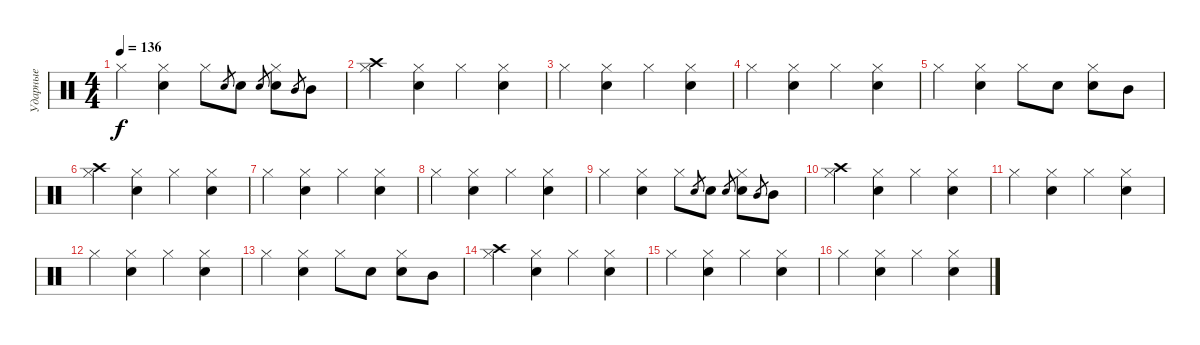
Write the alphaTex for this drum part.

\track ("Ударные" "Ударные") {instrument percussion}
\staff {score}
\articulation defaults
\ts (4 4)
\tempo 136
\clef neutral
\ks c "Hi-Hat (closed)".4{dy f}
("Hi-Hat (closed)" "Snare (hit) 2").4 "Hi-Hat (closed)".8 "Snare (hit) 2".8{gr} "Snare (hit) 2".8 "Snare (hit) 2".8{gr} ("Hi-Hat (closed)" "Snare (hit) 2").8 "Mid Tom (hit)".8{gr} "Mid Tom (hit)".8 |
("Hi-Hat (closed)" "Crash high (hit)").4 ("Hi-Hat (closed)" "Snare (hit) 2").4 "Hi-Hat (closed)".4 ("Hi-Hat (closed)" "Snare (hit) 2").4 |
"Hi-Hat (closed)".4 ("Hi-Hat (closed)" "Snare (hit) 2").4 "Hi-Hat (closed)".4 ("Hi-Hat (closed)" "Snare (hit) 2").4 |
"Hi-Hat (closed)".4 ("Hi-Hat (closed)" "Snare (hit) 2").4 "Hi-Hat (closed)".4 ("Hi-Hat (closed)" "Snare (hit) 2").4 |
"Hi-Hat (closed)".4 ("Hi-Hat (closed)" "Snare (hit) 2").4 "Hi-Hat (closed)".8 "Snare (hit) 2".8 ("Hi-Hat (closed)" "Snare (hit) 2").8 "Mid Tom (hit)".8 |
("Hi-Hat (closed)" "Crash high (hit)").4 ("Hi-Hat (closed)" "Snare (hit) 2").4 "Hi-Hat (closed)".4 ("Hi-Hat (closed)" "Snare (hit) 2").4 |
"Hi-Hat (closed)".4 ("Hi-Hat (closed)" "Snare (hit) 2").4 "Hi-Hat (closed)".4 ("Hi-Hat (closed)" "Snare (hit) 2").4 |
"Hi-Hat (closed)".4 ("Hi-Hat (closed)" "Snare (hit) 2").4 "Hi-Hat (closed)".4 ("Hi-Hat (closed)" "Snare (hit) 2").4 |
"Hi-Hat (closed)".4 ("Hi-Hat (closed)" "Snare (hit) 2").4 "Hi-Hat (closed)".8 "Snare (hit) 2".8{gr} "Snare (hit) 2".8 "Snare (hit) 2".8{gr} ("Hi-Hat (closed)" "Snare (hit) 2").8 "Mid Tom (hit)".8{gr} "Mid Tom (hit)".8 |
("Hi-Hat (closed)" "Crash high (hit)").4 ("Hi-Hat (closed)" "Snare (hit) 2").4 "Hi-Hat (closed)".4 ("Hi-Hat (closed)" "Snare (hit) 2").4 |
"Hi-Hat (closed)".4 ("Hi-Hat (closed)" "Snare (hit) 2").4 "Hi-Hat (closed)".4 ("Hi-Hat (closed)" "Snare (hit) 2").4 |
"Hi-Hat (closed)".4 ("Hi-Hat (closed)" "Snare (hit) 2").4 "Hi-Hat (closed)".4 ("Hi-Hat (closed)" "Snare (hit) 2").4 |
"Hi-Hat (closed)".4 ("Hi-Hat (closed)" "Snare (hit) 2").4 "Hi-Hat (closed)".8 "Snare (hit) 2".8 ("Hi-Hat (closed)" "Snare (hit) 2").8 "Mid Tom (hit)".8 |
("Hi-Hat (closed)" "Crash high (hit)").4 ("Hi-Hat (closed)" "Snare (hit) 2").4 "Hi-Hat (closed)".4 ("Hi-Hat (closed)" "Snare (hit) 2").4 |
"Hi-Hat (closed)".4 ("Hi-Hat (closed)" "Snare (hit) 2").4 "Hi-Hat (closed)".4 ("Hi-Hat (closed)" "Snare (hit) 2").4 |
"Hi-Hat (closed)".4 ("Hi-Hat (closed)" "Snare (hit) 2").4 "Hi-Hat (closed)".4 ("Hi-Hat (closed)" "Snare (hit) 2").4
